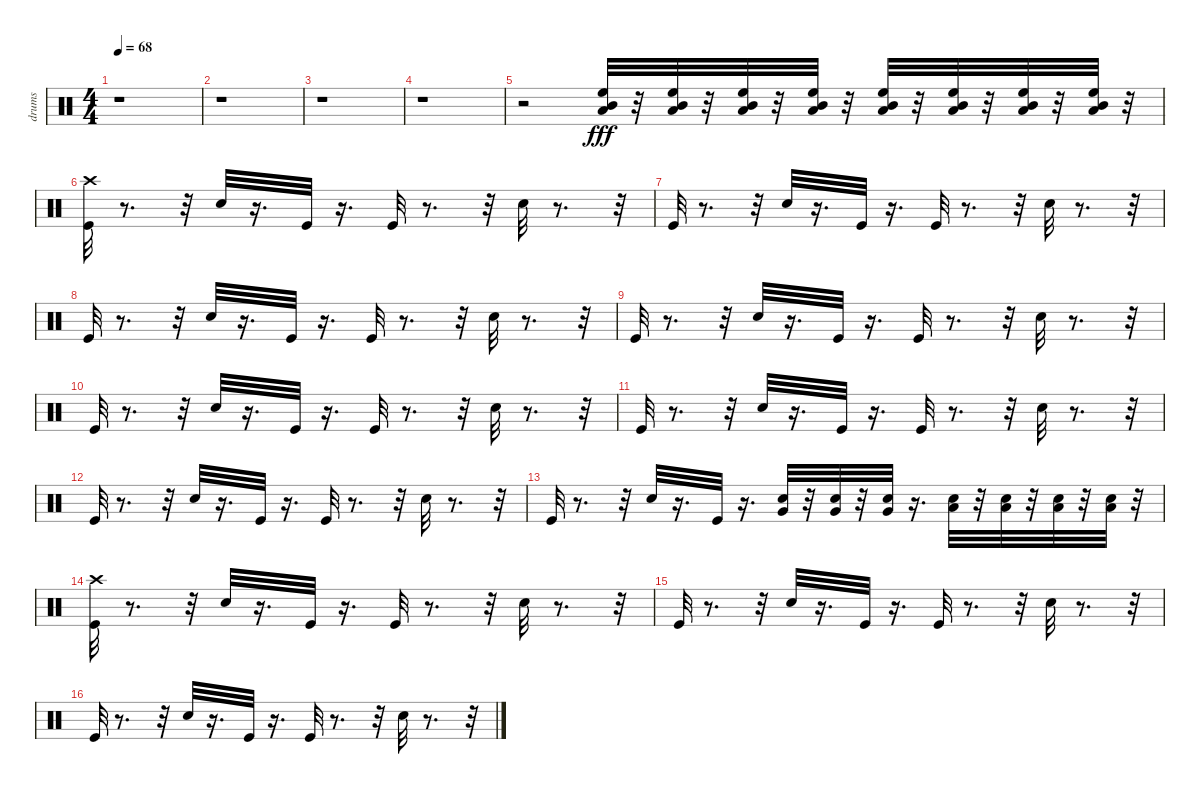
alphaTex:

\track ("drums" "drums") {instrument percussion}
\staff {score}
\articulation defaults
\ts (4 4)
\tempo 68
\clef neutral
\ks c
r.1{dy fff} |
r.1 |
r.1 |
r.1 |
r.2 ("Low Tom (hit)" "High Floor Tom (hit)" "Mid Tom (hit)").32 r.32 ("Low Tom (hit)" "High Floor Tom (hit)" "Mid Tom (hit)").32 r.32 ("Low Tom (hit)" "High Floor Tom (hit)" "Mid Tom (hit)").32 r.32 ("Low Tom (hit)" "High Floor Tom (hit)" "Mid Tom (hit)").32 r.32 ("Low Tom (hit)" "High Floor Tom (hit)" "Mid Tom (hit)").32 r.32 ("Low Tom (hit)" "High Floor Tom (hit)" "Mid Tom (hit)").32 r.32 ("Low Tom (hit)" "High Floor Tom (hit)" "Mid Tom (hit)").32 r.32 ("Low Tom (hit)" "High Floor Tom (hit)" "Mid Tom (hit)").32 r.32 |
("Kick (hit)" "Crash high (hit)").32 r.8{d} r.32 "Snare (hit) 2".32 r.16{d} "Kick (hit)".32 r.16{d} "Kick (hit)".32 r.8{d} r.32 "Snare (hit) 2".32 r.8{d} r.32 |
"Kick (hit)".32 r.8{d} r.32 "Snare (hit) 2".32 r.16{d} "Kick (hit)".32 r.16{d} "Kick (hit)".32 r.8{d} r.32 "Snare (hit) 2".32 r.8{d} r.32 |
"Kick (hit)".32 r.8{d} r.32 "Snare (hit) 2".32 r.16{d} "Kick (hit)".32 r.16{d} "Kick (hit)".32 r.8{d} r.32 "Snare (hit) 2".32 r.8{d} r.32 |
"Kick (hit)".32 r.8{d} r.32 "Snare (hit) 2".32 r.16{d} "Kick (hit)".32 r.16{d} "Kick (hit)".32 r.8{d} r.32 "Snare (hit) 2".32 r.8{d} r.32 |
"Kick (hit)".32 r.8{d} r.32 "Snare (hit) 2".32 r.16{d} "Kick (hit)".32 r.16{d} "Kick (hit)".32 r.8{d} r.32 "Snare (hit) 2".32 r.8{d} r.32 |
"Kick (hit)".32 r.8{d} r.32 "Snare (hit) 2".32 r.16{d} "Kick (hit)".32 r.16{d} "Kick (hit)".32 r.8{d} r.32 "Snare (hit) 2".32 r.8{d} r.32 |
"Kick (hit)".32 r.8{d} r.32 "Snare (hit) 2".32 r.16{d} "Kick (hit)".32 r.16{d} "Kick (hit)".32 r.8{d} r.32 "Snare (hit) 2".32 r.8{d} r.32 |
"Kick (hit)".32 r.8{d} r.32 "Snare (hit) 2".32 r.16{d} "Kick (hit)".32 r.16{d} ("Very Low Tom (hit)" "Snare (hit) 2").32 r.32 ("Very Low Tom (hit)" "Snare (hit) 2").32 r.32 ("Very Low Tom (hit)" "Snare (hit) 2").32 r.16{d} ("Low Tom (hit)" "Snare (hit) 2").32 r.32 ("Low Tom (hit)" "Snare (hit) 2").32 r.32 ("Low Tom (hit)" "Snare (hit) 2").32 r.32 ("Low Tom (hit)" "Snare (hit) 2").32 r.32 |
("Kick (hit)" "Crash high (hit)").32 r.8{d} r.32 "Snare (hit) 2".32 r.16{d} "Kick (hit)".32 r.16{d} "Kick (hit)".32 r.8{d} r.32 "Snare (hit) 2".32 r.8{d} r.32 |
"Kick (hit)".32 r.8{d} r.32 "Snare (hit) 2".32 r.16{d} "Kick (hit)".32 r.16{d} "Kick (hit)".32 r.8{d} r.32 "Snare (hit) 2".32 r.8{d} r.32 |
"Kick (hit)".32 r.8{d} r.32 "Snare (hit) 2".32 r.16{d} "Kick (hit)".32 r.16{d} "Kick (hit)".32 r.8{d} r.32 "Snare (hit) 2".32 r.8{d} r.32
